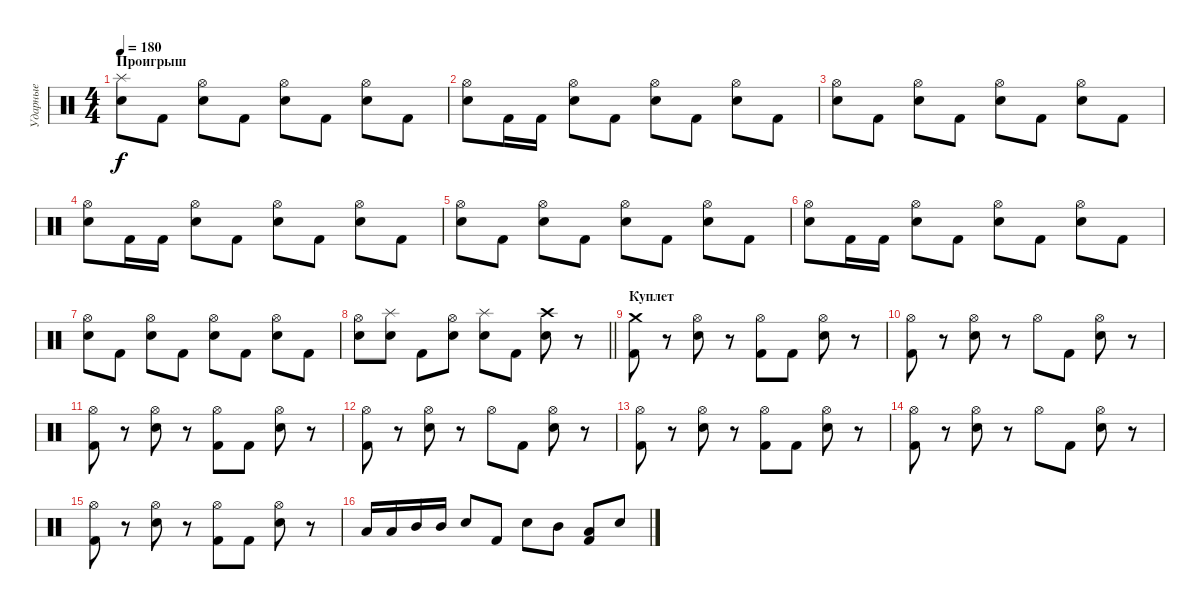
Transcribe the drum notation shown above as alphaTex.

\track ("Ударные" "Ударные") {instrument percussion}
\staff {score}
\articulation defaults
\ts (4 4)
\section ("" "Проигрыш")
\tempo 180
\clef neutral
\ks c
("Splash (hit)" "Snare (hit) 2").8{dy f} "Kick (hit) 2".8 ("Hi-Hat (open)" "Snare (hit) 2").8 "Kick (hit) 2".8 ("Hi-Hat (open)" "Snare (hit) 2").8 "Kick (hit) 2".8 ("Hi-Hat (open)" "Snare (hit) 2").8 "Kick (hit) 2".8 |
("Hi-Hat (open)" "Snare (hit) 2").8 "Kick (hit) 2".16 "Kick (hit) 2".16 ("Hi-Hat (open)" "Snare (hit) 2").8 "Kick (hit) 2".8 ("Hi-Hat (open)" "Snare (hit) 2").8 "Kick (hit) 2".8 ("Hi-Hat (open)" "Snare (hit) 2").8 "Kick (hit) 2".8 |
("Hi-Hat (open)" "Snare (hit) 2").8 "Kick (hit) 2".8 ("Hi-Hat (open)" "Snare (hit) 2").8 "Kick (hit) 2".8 ("Hi-Hat (open)" "Snare (hit) 2").8 "Kick (hit) 2".8 ("Hi-Hat (open)" "Snare (hit) 2").8 "Kick (hit) 2".8 |
("Hi-Hat (open)" "Snare (hit) 2").8 "Kick (hit) 2".16 "Kick (hit) 2".16 ("Hi-Hat (open)" "Snare (hit) 2").8 "Kick (hit) 2".8 ("Hi-Hat (open)" "Snare (hit) 2").8 "Kick (hit) 2".8 ("Hi-Hat (open)" "Snare (hit) 2").8 "Kick (hit) 2".8 |
("Hi-Hat (open)" "Snare (hit) 2").8 "Kick (hit) 2".8 ("Hi-Hat (open)" "Snare (hit) 2").8 "Kick (hit) 2".8 ("Hi-Hat (open)" "Snare (hit) 2").8 "Kick (hit) 2".8 ("Hi-Hat (open)" "Snare (hit) 2").8 "Kick (hit) 2".8 |
("Hi-Hat (open)" "Snare (hit) 2").8 "Kick (hit) 2".16 "Kick (hit) 2".16 ("Hi-Hat (open)" "Snare (hit) 2").8 "Kick (hit) 2".8 ("Hi-Hat (open)" "Snare (hit) 2").8 "Kick (hit) 2".8 ("Hi-Hat (open)" "Snare (hit) 2").8 "Kick (hit) 2".8 |
("Hi-Hat (open)" "Snare (hit) 2").8 "Kick (hit) 2".8 ("Hi-Hat (open)" "Snare (hit) 2").8 "Kick (hit) 2".8 ("Hi-Hat (open)" "Snare (hit) 2").8 "Kick (hit) 2".8 ("Hi-Hat (open)" "Snare (hit) 2").8 "Kick (hit) 2".8 |
\barLineRight lightlight
("Hi-Hat (open)" "Snare (hit) 2").8 ("Splash (hit)" "Snare (hit) 2").8 "Kick (hit) 2".8 ("Hi-Hat (open)" "Snare (hit) 2").8 ("Splash (hit)" "Snare (hit) 2").8 "Kick (hit) 2".8 ("Crash high (hit)" "Snare (hit) 2").8 r.8 |
\section ("" "Куплет")
("Crash medium (hit)" "Kick (hit) 2").8 r.8 ("Hi-Hat (open)" "Snare (hit) 2").8 r.8 ("Hi-Hat (open)" "Kick (hit) 2").8 "Kick (hit) 2".8 ("Hi-Hat (open)" "Snare (hit) 2").8 r.8 |
("Hi-Hat (open)" "Kick (hit) 2").8 r.8 ("Hi-Hat (open)" "Snare (hit) 2").8 r.8 "Hi-Hat (open)".8 "Kick (hit) 2".8 ("Hi-Hat (open)" "Snare (hit) 2").8 r.8 |
("Hi-Hat (open)" "Kick (hit) 2").8 r.8 ("Hi-Hat (open)" "Snare (hit) 2").8 r.8 ("Hi-Hat (open)" "Kick (hit) 2").8 "Kick (hit) 2".8 ("Hi-Hat (open)" "Snare (hit) 2").8 r.8 |
("Hi-Hat (open)" "Kick (hit) 2").8 r.8 ("Hi-Hat (open)" "Snare (hit) 2").8 r.8 "Hi-Hat (open)".8 "Kick (hit) 2".8 ("Hi-Hat (open)" "Snare (hit) 2").8 r.8 |
("Hi-Hat (open)" "Kick (hit) 2").8 r.8 ("Hi-Hat (open)" "Snare (hit) 2").8 r.8 ("Hi-Hat (open)" "Kick (hit) 2").8 "Kick (hit) 2".8 ("Hi-Hat (open)" "Snare (hit) 2").8 r.8 |
("Hi-Hat (open)" "Kick (hit) 2").8 r.8 ("Hi-Hat (open)" "Snare (hit) 2").8 r.8 "Hi-Hat (open)".8 "Kick (hit) 2".8 ("Hi-Hat (open)" "Snare (hit) 2").8 r.8 |
("Hi-Hat (open)" "Kick (hit) 2").8 r.8 ("Hi-Hat (open)" "Snare (hit) 2").8 r.8 ("Hi-Hat (open)" "Kick (hit) 2").8 "Kick (hit) 2".8 ("Hi-Hat (open)" "Snare (hit) 2").8 r.8 |
"Low Tom (hit)".16 "Low Tom (hit)".16 "Mid Tom (hit)".16 "Mid Tom (hit)".16 "Snare (hit) 2".8 "Kick (hit) 2".8 "Snare (hit) 2".8 "Mid Tom (hit)".8 ("Low Tom (hit)" "Kick (hit) 2").8 "Snare (hit) 2".8
